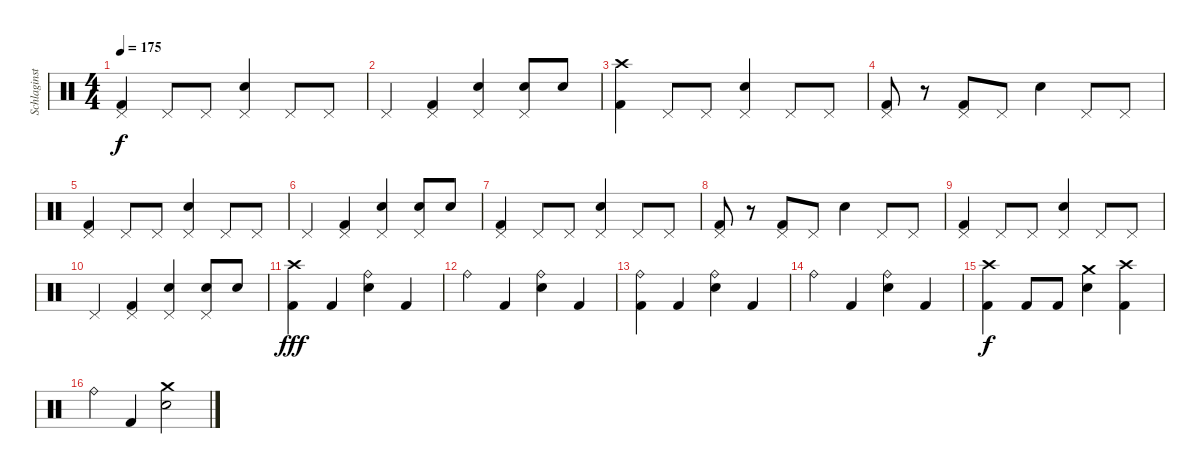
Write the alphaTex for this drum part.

\track ("Schlaginstrumente - Auswahl" "Schlaginst") {instrument percussion}
\staff {score}
\articulation defaults
\ts (4 4)
\tempo 175
\clef neutral
\ks c
("Pedal Hi-Hat (hit)" "Kick (hit) 2").4{dy f} "Pedal Hi-Hat (hit)".8 "Pedal Hi-Hat (hit)".8 ("Pedal Hi-Hat (hit)" "Electric Snare (hit)").4 "Pedal Hi-Hat (hit)".8 "Pedal Hi-Hat (hit)".8 |
"Pedal Hi-Hat (hit)".4 ("Kick (hit) 2" "Pedal Hi-Hat (hit)").4 ("Electric Snare (hit)" "Pedal Hi-Hat (hit)").4 ("Electric Snare (hit)" "Pedal Hi-Hat (hit)").8 "Electric Snare (hit)".8 |
("Crash high (hit)" "Kick (hit) 2").4 "Pedal Hi-Hat (hit)".8 "Pedal Hi-Hat (hit)".8 ("Pedal Hi-Hat (hit)" "Electric Snare (hit)").4 "Pedal Hi-Hat (hit)".8 "Pedal Hi-Hat (hit)".8 |
("Pedal Hi-Hat (hit)" "Kick (hit) 2").8 r.8 ("Kick (hit) 2" "Pedal Hi-Hat (hit)").8 "Pedal Hi-Hat (hit)".8 "Electric Snare (hit)".4 "Pedal Hi-Hat (hit)".8 "Pedal Hi-Hat (hit)".8 |
("Pedal Hi-Hat (hit)" "Kick (hit) 2").4 "Pedal Hi-Hat (hit)".8 "Pedal Hi-Hat (hit)".8 ("Pedal Hi-Hat (hit)" "Electric Snare (hit)").4 "Pedal Hi-Hat (hit)".8 "Pedal Hi-Hat (hit)".8 |
"Pedal Hi-Hat (hit)".4 ("Kick (hit) 2" "Pedal Hi-Hat (hit)").4 ("Electric Snare (hit)" "Pedal Hi-Hat (hit)").4 ("Electric Snare (hit)" "Pedal Hi-Hat (hit)").8 "Electric Snare (hit)".8 |
("Pedal Hi-Hat (hit)" "Kick (hit) 2").4 "Pedal Hi-Hat (hit)".8 "Pedal Hi-Hat (hit)".8 ("Pedal Hi-Hat (hit)" "Electric Snare (hit)").4 "Pedal Hi-Hat (hit)".8 "Pedal Hi-Hat (hit)".8 |
("Pedal Hi-Hat (hit)" "Kick (hit) 2").8 r.8 ("Kick (hit) 2" "Pedal Hi-Hat (hit)").8 "Pedal Hi-Hat (hit)".8 "Electric Snare (hit)".4 "Pedal Hi-Hat (hit)".8 "Pedal Hi-Hat (hit)".8 |
("Pedal Hi-Hat (hit)" "Kick (hit) 2").4 "Pedal Hi-Hat (hit)".8 "Pedal Hi-Hat (hit)".8 ("Pedal Hi-Hat (hit)" "Electric Snare (hit)").4 "Pedal Hi-Hat (hit)".8 "Pedal Hi-Hat (hit)".8 |
"Pedal Hi-Hat (hit)".4 ("Kick (hit) 2" "Pedal Hi-Hat (hit)").4 ("Electric Snare (hit)" "Pedal Hi-Hat (hit)").4 ("Electric Snare (hit)" "Pedal Hi-Hat (hit)").8 "Electric Snare (hit)".8 |
("Crash high (hit)" "Kick (hit) 2").4{dy fff} "Kick (hit) 2".4 ("Ride (bell)" "Electric Snare (hit)").4 "Kick (hit) 2".4 |
"Ride (bell)".4 "Kick (hit) 2".4 ("Ride (bell)" "Electric Snare (hit)").4 "Kick (hit) 2".4 |
("Ride (bell)" "Kick (hit) 2").4 "Kick (hit) 2".4 ("Ride (bell)" "Electric Snare (hit)").4 "Kick (hit) 2".4 |
"Ride (bell)".4 "Kick (hit) 2".4 ("Ride (bell)" "Electric Snare (hit)").4 "Kick (hit) 2".4 |
("Crash high (hit)" "Kick (hit) 2").4{dy f} "Kick (hit) 2".8 "Kick (hit) 2".8 ("Crash medium (hit)" "Electric Snare (hit)").4 ("Crash high (hit)" "Kick (hit) 2").4 |
"Ride (bell)".4 "Kick (hit) 2".4 ("Electric Snare (hit)" "Crash medium (hit)").2
